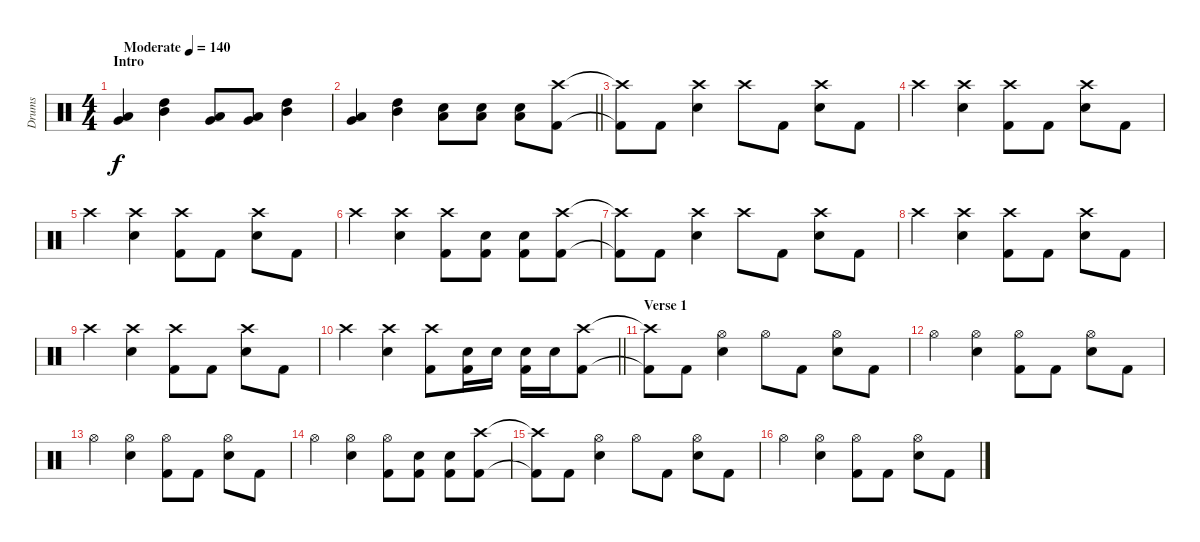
\track ("Drums" "Drums") {instrument percussion}
\staff {score}
\articulation defaults
\ts (4 4)
\section ("" "Intro")
\tempo (140 "Moderate")
\clef neutral
\ks c
("Very Low Tom (hit)" "Low Floor Tom (hit)").4{dy f} ("High Tom (hit)" "Mid Tom (hit)").4 ("Very Low Tom (hit)" "Low Floor Tom (hit)").8 ("Very Low Tom (hit)" "Low Floor Tom (hit)").8 ("High Tom (hit)" "Mid Tom (hit)").4 |
\barLineRight lightlight
("Very Low Tom (hit)" "Low Floor Tom (hit)").4 ("High Tom (hit)" "Mid Tom (hit)").4 ("Low Floor Tom (hit)" "Electric Snare (hit)").8 ("Low Floor Tom (hit)" "Electric Snare (hit)").8 ("Low Floor Tom (hit)" "Electric Snare (hit)").8 ("Crash high (hit)" "Kick (hit) 2").8 |
("Crash high (hit)"{t} "Kick (hit) 2"{t}).8 "Kick (hit) 2".8 ("Crash high (hit)" "Electric Snare (hit)").4 "Crash high (hit)".8 "Kick (hit) 2".8 ("Crash high (hit)" "Electric Snare (hit)").8 "Kick (hit) 2".8 |
"Crash high (hit)".4 ("Crash high (hit)" "Electric Snare (hit)").4 ("Crash high (hit)" "Kick (hit) 2").8 "Kick (hit) 2".8 ("Crash high (hit)" "Electric Snare (hit)").8 "Kick (hit) 2".8 |
"Crash high (hit)".4 ("Crash high (hit)" "Electric Snare (hit)").4 ("Crash high (hit)" "Kick (hit) 2").8 "Kick (hit) 2".8 ("Crash high (hit)" "Electric Snare (hit)").8 "Kick (hit) 2".8 |
"Crash high (hit)".4 ("Crash high (hit)" "Electric Snare (hit)").4 ("Crash high (hit)" "Kick (hit) 2").8 ("Electric Snare (hit)" "Kick (hit) 2").8 ("Electric Snare (hit)" "Kick (hit) 2").8 ("Crash high (hit)" "Kick (hit) 2").8 |
("Crash high (hit)"{t} "Kick (hit) 2"{t}).8 "Kick (hit) 2".8 ("Crash high (hit)" "Electric Snare (hit)").4 "Crash high (hit)".8 "Kick (hit) 2".8 ("Crash high (hit)" "Electric Snare (hit)").8 "Kick (hit) 2".8 |
"Crash high (hit)".4 ("Crash high (hit)" "Electric Snare (hit)").4 ("Crash high (hit)" "Kick (hit) 2").8 "Kick (hit) 2".8 ("Crash high (hit)" "Electric Snare (hit)").8 "Kick (hit) 2".8 |
"Crash high (hit)".4 ("Crash high (hit)" "Electric Snare (hit)").4 ("Crash high (hit)" "Kick (hit) 2").8 "Kick (hit) 2".8 ("Crash high (hit)" "Electric Snare (hit)").8 "Kick (hit) 2".8 |
\barLineRight lightlight "Crash high (hit)".4
("Crash high (hit)" "Electric Snare (hit)").4 ("Crash high (hit)" "Kick (hit) 2").8 ("Electric Snare (hit)" "Kick (hit) 2").16 "Electric Snare (hit)".16 ("Electric Snare (hit)" "Kick (hit) 2").16 "Electric Snare (hit)".16 ("Crash high (hit)" "Kick (hit) 2").8 |
\section ("" "Verse 1")
("Crash high (hit)"{t} "Kick (hit) 2"{t}).8 "Kick (hit) 2".8 ("Hi-Hat (open)" "Electric Snare (hit)").4 "Hi-Hat (open)".8 "Kick (hit) 2".8 ("Hi-Hat (open)" "Electric Snare (hit)").8 "Kick (hit) 2".8 |
"Hi-Hat (open)".4 ("Hi-Hat (open)" "Electric Snare (hit)").4 ("Hi-Hat (open)" "Kick (hit) 2").8 "Kick (hit) 2".8 ("Hi-Hat (open)" "Electric Snare (hit)").8 "Kick (hit) 2".8 |
"Hi-Hat (open)".4 ("Hi-Hat (open)" "Electric Snare (hit)").4 ("Hi-Hat (open)" "Kick (hit) 2").8 "Kick (hit) 2".8 ("Hi-Hat (open)" "Electric Snare (hit)").8 "Kick (hit) 2".8 |
"Hi-Hat (open)".4 ("Hi-Hat (open)" "Electric Snare (hit)").4 ("Hi-Hat (open)" "Kick (hit) 2").8 ("Electric Snare (hit)" "Kick (hit) 2").8 ("Electric Snare (hit)" "Kick (hit) 2").8 ("Crash high (hit)" "Kick (hit) 2").8 |
("Crash high (hit)"{t} "Kick (hit) 2"{t}).8 "Kick (hit) 2".8 ("Hi-Hat (open)" "Electric Snare (hit)").4 "Hi-Hat (open)".8 "Kick (hit) 2".8 ("Hi-Hat (open)" "Electric Snare (hit)").8 "Kick (hit) 2".8 |
"Hi-Hat (open)".4 ("Hi-Hat (open)" "Electric Snare (hit)").4 ("Hi-Hat (open)" "Kick (hit) 2").8 "Kick (hit) 2".8 ("Hi-Hat (open)" "Electric Snare (hit)").8 "Kick (hit) 2".8
